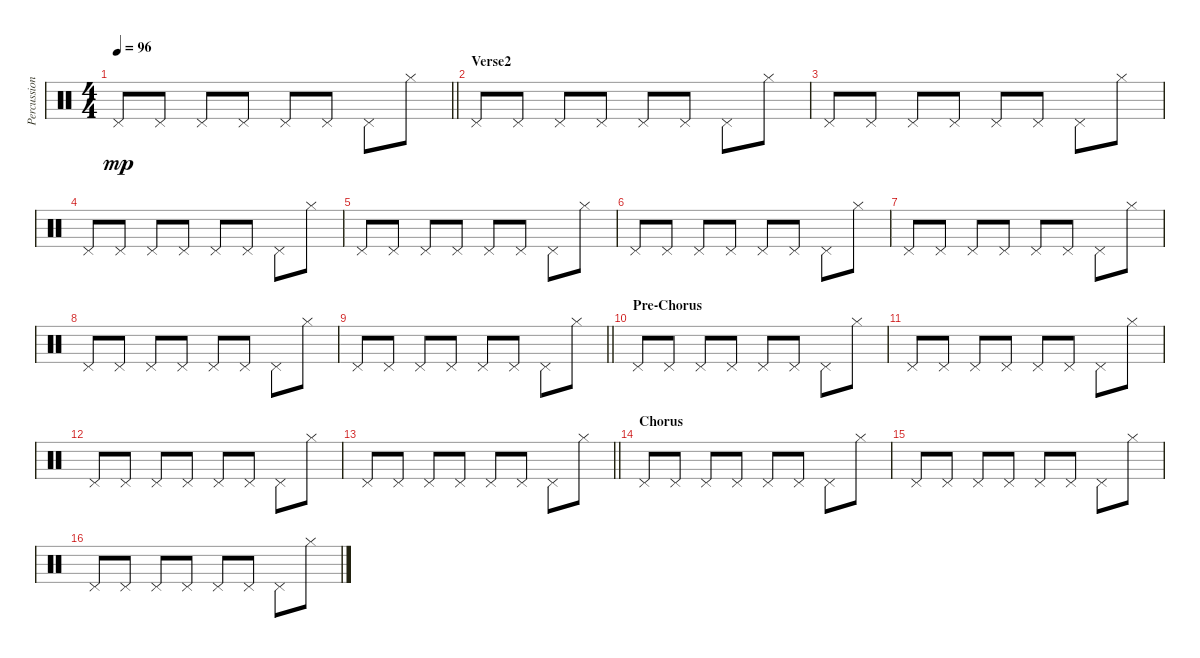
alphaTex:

\track ("Percussion" "Percussion") {instrument percussion}
\staff {score}
\articulation defaults
\ts (4 4)
\tempo 96
\clef neutral
\barLineRight lightlight
\ks c "Pedal Hi-Hat (hit)".8{dy mp} "Pedal Hi-Hat (hit)".8 "Pedal Hi-Hat (hit)".8 "Pedal Hi-Hat (hit)".8 "Pedal Hi-Hat (hit)".8 "Pedal Hi-Hat (hit)".8 "Pedal Hi-Hat (hit)".8 "Hi-Hat (closed)".8
|
\section ("" "Verse2")
"Pedal Hi-Hat (hit)".8 "Pedal Hi-Hat (hit)".8 "Pedal Hi-Hat (hit)".8 "Pedal Hi-Hat (hit)".8 "Pedal Hi-Hat (hit)".8 "Pedal Hi-Hat (hit)".8 "Pedal Hi-Hat (hit)".8 "Hi-Hat (closed)".8 |
"Pedal Hi-Hat (hit)".8 "Pedal Hi-Hat (hit)".8 "Pedal Hi-Hat (hit)".8 "Pedal Hi-Hat (hit)".8 "Pedal Hi-Hat (hit)".8 "Pedal Hi-Hat (hit)".8 "Pedal Hi-Hat (hit)".8 "Hi-Hat (closed)".8 |
"Pedal Hi-Hat (hit)".8 "Pedal Hi-Hat (hit)".8 "Pedal Hi-Hat (hit)".8 "Pedal Hi-Hat (hit)".8 "Pedal Hi-Hat (hit)".8 "Pedal Hi-Hat (hit)".8 "Pedal Hi-Hat (hit)".8 "Hi-Hat (closed)".8 |
"Pedal Hi-Hat (hit)".8 "Pedal Hi-Hat (hit)".8 "Pedal Hi-Hat (hit)".8 "Pedal Hi-Hat (hit)".8 "Pedal Hi-Hat (hit)".8 "Pedal Hi-Hat (hit)".8 "Pedal Hi-Hat (hit)".8 "Hi-Hat (closed)".8 |
"Pedal Hi-Hat (hit)".8 "Pedal Hi-Hat (hit)".8 "Pedal Hi-Hat (hit)".8 "Pedal Hi-Hat (hit)".8 "Pedal Hi-Hat (hit)".8 "Pedal Hi-Hat (hit)".8 "Pedal Hi-Hat (hit)".8 "Hi-Hat (closed)".8 |
"Pedal Hi-Hat (hit)".8 "Pedal Hi-Hat (hit)".8 "Pedal Hi-Hat (hit)".8 "Pedal Hi-Hat (hit)".8 "Pedal Hi-Hat (hit)".8 "Pedal Hi-Hat (hit)".8 "Pedal Hi-Hat (hit)".8 "Hi-Hat (closed)".8 |
"Pedal Hi-Hat (hit)".8 "Pedal Hi-Hat (hit)".8 "Pedal Hi-Hat (hit)".8 "Pedal Hi-Hat (hit)".8 "Pedal Hi-Hat (hit)".8 "Pedal Hi-Hat (hit)".8 "Pedal Hi-Hat (hit)".8 "Hi-Hat (closed)".8 |
\barLineRight lightlight "Pedal Hi-Hat (hit)".8 "Pedal Hi-Hat (hit)".8 "Pedal Hi-Hat (hit)".8 "Pedal Hi-Hat (hit)".8 "Pedal Hi-Hat (hit)".8 "Pedal Hi-Hat (hit)".8 "Pedal Hi-Hat (hit)".8 "Hi-Hat (closed)".8
|
\section ("" "Pre-Chorus")
"Pedal Hi-Hat (hit)".8 "Pedal Hi-Hat (hit)".8 "Pedal Hi-Hat (hit)".8 "Pedal Hi-Hat (hit)".8 "Pedal Hi-Hat (hit)".8 "Pedal Hi-Hat (hit)".8 "Pedal Hi-Hat (hit)".8 "Hi-Hat (closed)".8 |
"Pedal Hi-Hat (hit)".8 "Pedal Hi-Hat (hit)".8 "Pedal Hi-Hat (hit)".8 "Pedal Hi-Hat (hit)".8 "Pedal Hi-Hat (hit)".8 "Pedal Hi-Hat (hit)".8 "Pedal Hi-Hat (hit)".8 "Hi-Hat (closed)".8 |
"Pedal Hi-Hat (hit)".8 "Pedal Hi-Hat (hit)".8 "Pedal Hi-Hat (hit)".8 "Pedal Hi-Hat (hit)".8 "Pedal Hi-Hat (hit)".8 "Pedal Hi-Hat (hit)".8 "Pedal Hi-Hat (hit)".8 "Hi-Hat (closed)".8 |
\barLineRight lightlight "Pedal Hi-Hat (hit)".8 "Pedal Hi-Hat (hit)".8 "Pedal Hi-Hat (hit)".8 "Pedal Hi-Hat (hit)".8 "Pedal Hi-Hat (hit)".8 "Pedal Hi-Hat (hit)".8 "Pedal Hi-Hat (hit)".8 "Hi-Hat (closed)".8
|
\section ("" "Chorus")
"Pedal Hi-Hat (hit)".8 "Pedal Hi-Hat (hit)".8 "Pedal Hi-Hat (hit)".8 "Pedal Hi-Hat (hit)".8 "Pedal Hi-Hat (hit)".8 "Pedal Hi-Hat (hit)".8 "Pedal Hi-Hat (hit)".8 "Hi-Hat (closed)".8 |
"Pedal Hi-Hat (hit)".8 "Pedal Hi-Hat (hit)".8 "Pedal Hi-Hat (hit)".8 "Pedal Hi-Hat (hit)".8 "Pedal Hi-Hat (hit)".8 "Pedal Hi-Hat (hit)".8 "Pedal Hi-Hat (hit)".8 "Hi-Hat (closed)".8 |
"Pedal Hi-Hat (hit)".8 "Pedal Hi-Hat (hit)".8 "Pedal Hi-Hat (hit)".8 "Pedal Hi-Hat (hit)".8 "Pedal Hi-Hat (hit)".8 "Pedal Hi-Hat (hit)".8 "Pedal Hi-Hat (hit)".8 "Hi-Hat (closed)".8
